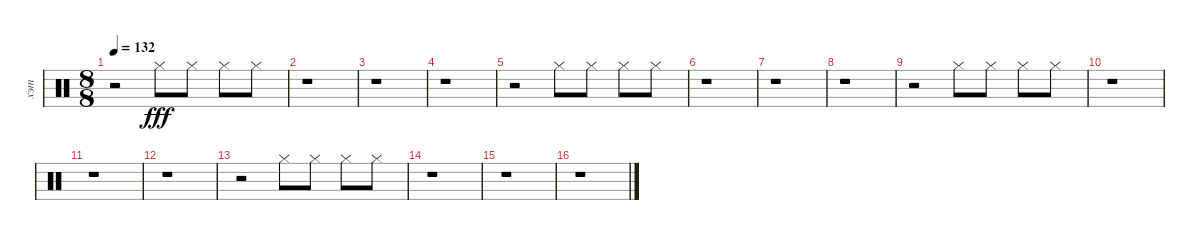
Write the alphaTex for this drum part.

\track ("хэт" "хэт") {instrument percussion}
\staff {score}
\articulation defaults
\ts (8 8)
\tempo 132
\clef neutral
\ks c
r.2{dy fff} "Hi-Hat (closed)".8 "Hi-Hat (closed)".8 "Hi-Hat (closed)".8 "Hi-Hat (closed)".8 |
r.1 |
r.1 |
r.1 |
r.2 "Hi-Hat (closed)".8 "Hi-Hat (closed)".8 "Hi-Hat (closed)".8 "Hi-Hat (closed)".8 |
r.1 |
r.1 |
r.1 |
r.2 "Hi-Hat (closed)".8 "Hi-Hat (closed)".8 "Hi-Hat (closed)".8 "Hi-Hat (closed)".8 |
r.1 |
r.1 |
r.1 |
r.2 "Hi-Hat (closed)".8 "Hi-Hat (closed)".8 "Hi-Hat (closed)".8 "Hi-Hat (closed)".8 |
r.1 |
r.1 |
r.1
